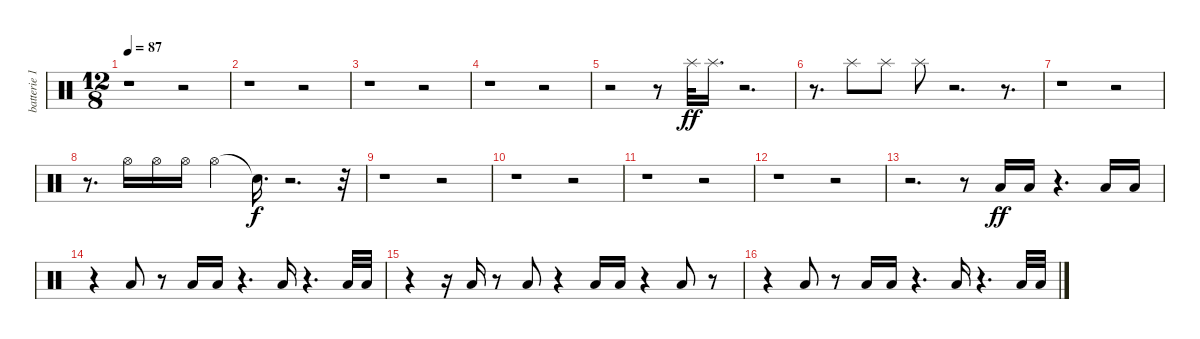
\track ("batterie 1" "batterie 1") {instrument percussion}
\staff {score}
\articulation defaults
\ts (12 8)
\tempo 87
\clef neutral
\ks c
r.1{dy ff} r.2 |
r.1 r.2 |
r.1 r.2 |
r.1 r.2 |
r.2 r.8 "Splash (hit)".32 "Splash (hit)".16{d} r.2{d} |
r.8{d} "Splash (hit)".8 "Splash (hit)".8 "Splash (hit)".8 r.2{d} r.8{d} |
r.1 r.2 |
r.8{d} "Hi-Hat (open)".16 "Hi-Hat (open)".16 "Hi-Hat (open)".16 "Hi-Hat (open)".4 "Snare (hit)"{t}.16{d dy f} r.2{d} r.32 |
r.1 r.2 |
r.1 r.2 |
r.1 r.2 |
r.1 r.2 |
r.2{d} r.8 "Low Floor Tom (hit)".16{dy ff} "Low Floor Tom (hit)".16 r.4{d} "Low Floor Tom (hit)".16 "Low Floor Tom (hit)".16 |
r.4 "Low Floor Tom (hit)".8 r.8 "Low Floor Tom (hit)".16 "Low Floor Tom (hit)".16 r.4{d} "Low Floor Tom (hit)".16 r.4{d} "Low Floor Tom (hit)".32 "Low Floor Tom (hit)".32 |
r.4 r.16 "Low Floor Tom (hit)".16 r.8 "Low Floor Tom (hit)".8 r.4 "Low Floor Tom (hit)".16 "Low Floor Tom (hit)".16 r.4 "Low Floor Tom (hit)".8 r.8 |
r.4 "Low Floor Tom (hit)".8 r.8 "Low Floor Tom (hit)".16 "Low Floor Tom (hit)".16 r.4{d} "Low Floor Tom (hit)".16 r.4{d} "Low Floor Tom (hit)".32 "Low Floor Tom (hit)".32
